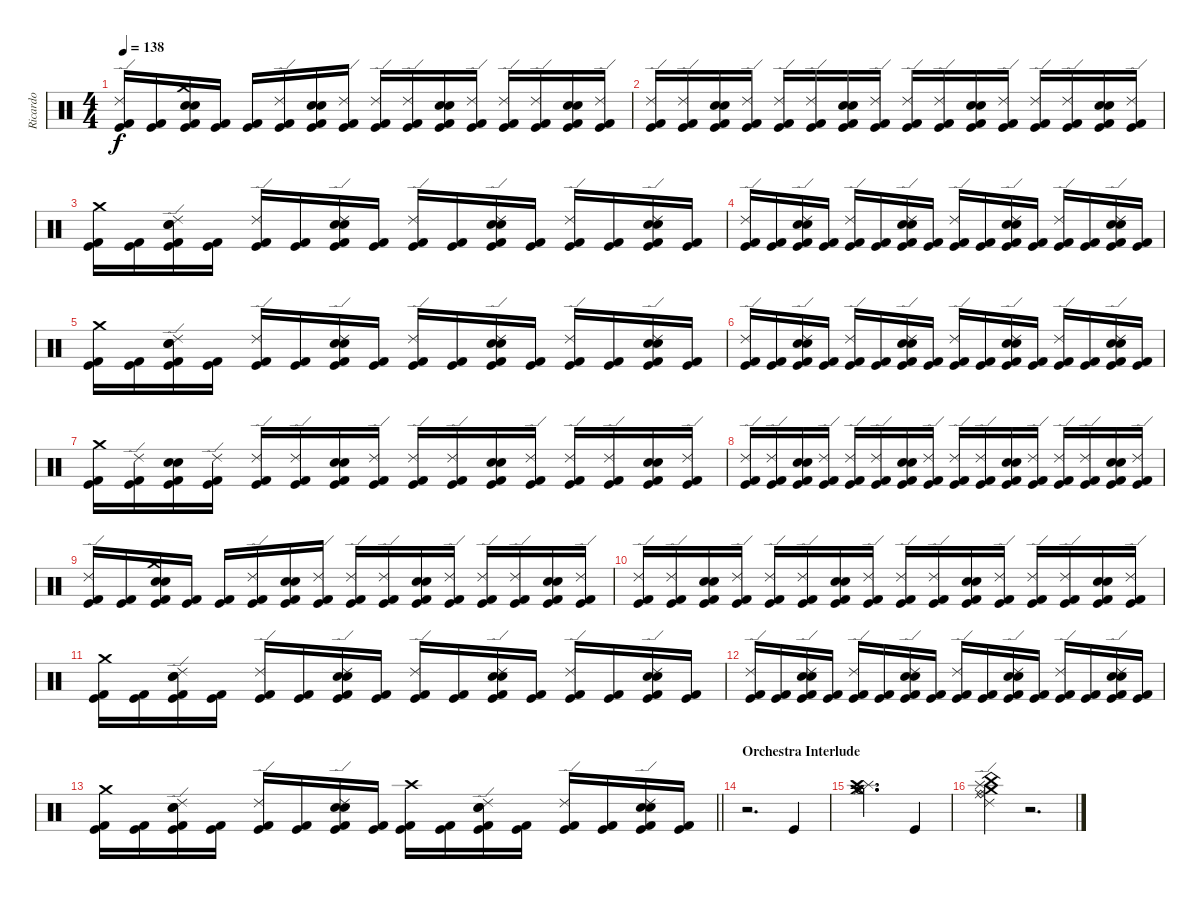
\track ("Ricardo" "Ricardo") {instrument percussion}
\staff {score}
\articulation defaults
\ts (4 4)
\tempo 138
\clef neutral
\ks c
("Ride (edge) 2" "Kick (hit) 2" "Kick (hit)").16{dy f} ("Kick (hit) 2" "Kick (hit)").16 ("Crash medium (hit)" "Electric Snare (hit)" "Snare (hit) 2" "Kick (hit) 2" "Kick (hit)").16 ("Kick (hit) 2" "Kick (hit)").16 ("Kick (hit) 2" "Kick (hit)").16 ("Ride (edge) 2" "Kick (hit) 2" "Kick (hit)").16 ("Electric Snare (hit)" "Snare (hit) 2" "Kick (hit) 2" "Kick (hit)").16 ("Ride (edge) 2" "Kick (hit) 2" "Kick (hit)").16 ("Ride (edge) 2" "Kick (hit) 2" "Kick (hit)").16 ("Ride (edge) 2" "Kick (hit) 2" "Kick (hit)").16 ("Electric Snare (hit)" "Snare (hit) 2" "Kick (hit) 2" "Kick (hit)").16 ("Ride (edge) 2" "Kick (hit) 2" "Kick (hit)").16 ("Ride (edge) 2" "Kick (hit) 2" "Kick (hit)").16 ("Ride (edge) 2" "Kick (hit) 2" "Kick (hit)").16 ("Electric Snare (hit)" "Snare (hit) 2" "Kick (hit) 2" "Kick (hit)").16 ("Ride (edge) 2" "Kick (hit) 2" "Kick (hit)").16 |
("Ride (edge) 2" "Kick (hit) 2" "Kick (hit)").16 ("Ride (edge) 2" "Kick (hit) 2" "Kick (hit)").16 ("Electric Snare (hit)" "Snare (hit) 2" "Kick (hit) 2" "Kick (hit)").16 ("Ride (edge) 2" "Kick (hit) 2" "Kick (hit)").16 ("Ride (edge) 2" "Kick (hit) 2" "Kick (hit)").16 ("Ride (edge) 2" "Kick (hit) 2" "Kick (hit)").16 ("Electric Snare (hit)" "Snare (hit) 2" "Kick (hit) 2" "Kick (hit)").16 ("Ride (edge) 2" "Kick (hit) 2" "Kick (hit)").16 ("Ride (edge) 2" "Kick (hit) 2" "Kick (hit)").16 ("Ride (edge) 2" "Kick (hit) 2" "Kick (hit)").16 ("Electric Snare (hit)" "Snare (hit) 2" "Kick (hit) 2" "Kick (hit)").16 ("Ride (edge) 2" "Kick (hit) 2" "Kick (hit)").16 ("Ride (edge) 2" "Kick (hit) 2" "Kick (hit)").16 ("Ride (edge) 2" "Kick (hit) 2" "Kick (hit)").16 ("Electric Snare (hit)" "Snare (hit) 2" "Kick (hit) 2" "Kick (hit)").16 ("Ride (edge) 2" "Kick (hit) 2" "Kick (hit)").16 |
("Crash medium (hit)" "Kick (hit) 2" "Kick (hit)").16 ("Kick (hit) 2" "Kick (hit)").16 ("Ride (edge) 2" "Electric Snare (hit)" "Snare (hit) 2" "Kick (hit) 2" "Kick (hit)").16 ("Kick (hit) 2" "Kick (hit)").16 ("Ride (edge) 2" "Kick (hit) 2" "Kick (hit)").16 ("Kick (hit) 2" "Kick (hit)").16 ("Ride (edge) 2" "Electric Snare (hit)" "Snare (hit) 2" "Kick (hit) 2" "Kick (hit)").16 ("Kick (hit) 2" "Kick (hit)").16 ("Ride (edge) 2" "Kick (hit) 2" "Kick (hit)").16 ("Kick (hit) 2" "Kick (hit)").16 ("Ride (edge) 2" "Electric Snare (hit)" "Snare (hit) 2" "Kick (hit) 2" "Kick (hit)").16 ("Kick (hit) 2" "Kick (hit)").16 ("Ride (edge) 2" "Kick (hit) 2" "Kick (hit)").16 ("Kick (hit) 2" "Kick (hit)").16 ("Ride (edge) 2" "Electric Snare (hit)" "Snare (hit) 2" "Kick (hit) 2" "Kick (hit)").16 ("Kick (hit) 2" "Kick (hit)").16 |
("Ride (edge) 2" "Kick (hit) 2" "Kick (hit)").16 ("Kick (hit) 2" "Kick (hit)").16 ("Ride (edge) 2" "Electric Snare (hit)" "Snare (hit) 2" "Kick (hit) 2" "Kick (hit)").16 ("Kick (hit) 2" "Kick (hit)").16 ("Ride (edge) 2" "Kick (hit) 2" "Kick (hit)").16 ("Kick (hit) 2" "Kick (hit)").16 ("Ride (edge) 2" "Electric Snare (hit)" "Snare (hit) 2" "Kick (hit) 2" "Kick (hit)").16 ("Kick (hit) 2" "Kick (hit)").16 ("Ride (edge) 2" "Kick (hit) 2" "Kick (hit)").16 ("Kick (hit) 2" "Kick (hit)").16 ("Ride (edge) 2" "Electric Snare (hit)" "Snare (hit) 2" "Kick (hit) 2" "Kick (hit)").16 ("Kick (hit) 2" "Kick (hit)").16 ("Ride (edge) 2" "Kick (hit) 2" "Kick (hit)").16 ("Kick (hit) 2" "Kick (hit)").16 ("Ride (edge) 2" "Electric Snare (hit)" "Snare (hit) 2" "Kick (hit) 2" "Kick (hit)").16 ("Kick (hit) 2" "Kick (hit)").16 |
("Crash medium (hit)" "Kick (hit) 2" "Kick (hit)").16 ("Kick (hit) 2" "Kick (hit)").16 ("Ride (edge) 2" "Electric Snare (hit)" "Snare (hit) 2" "Kick (hit) 2" "Kick (hit)").16 ("Kick (hit) 2" "Kick (hit)").16 ("Ride (edge) 2" "Kick (hit) 2" "Kick (hit)").16 ("Kick (hit) 2" "Kick (hit)").16 ("Ride (edge) 2" "Electric Snare (hit)" "Snare (hit) 2" "Kick (hit) 2" "Kick (hit)").16 ("Kick (hit) 2" "Kick (hit)").16 ("Ride (edge) 2" "Kick (hit) 2" "Kick (hit)").16 ("Kick (hit) 2" "Kick (hit)").16 ("Ride (edge) 2" "Electric Snare (hit)" "Snare (hit) 2" "Kick (hit) 2" "Kick (hit)").16 ("Kick (hit) 2" "Kick (hit)").16 ("Ride (edge) 2" "Kick (hit) 2" "Kick (hit)").16 ("Kick (hit) 2" "Kick (hit)").16 ("Ride (edge) 2" "Electric Snare (hit)" "Snare (hit) 2" "Kick (hit) 2" "Kick (hit)").16 ("Kick (hit) 2" "Kick (hit)").16 |
("Ride (edge) 2" "Kick (hit) 2" "Kick (hit)").16 ("Kick (hit) 2" "Kick (hit)").16 ("Ride (edge) 2" "Electric Snare (hit)" "Snare (hit) 2" "Kick (hit) 2" "Kick (hit)").16 ("Kick (hit) 2" "Kick (hit)").16 ("Ride (edge) 2" "Kick (hit) 2" "Kick (hit)").16 ("Kick (hit) 2" "Kick (hit)").16 ("Ride (edge) 2" "Electric Snare (hit)" "Snare (hit) 2" "Kick (hit) 2" "Kick (hit)").16 ("Kick (hit) 2" "Kick (hit)").16 ("Ride (edge) 2" "Kick (hit) 2" "Kick (hit)").16 ("Kick (hit) 2" "Kick (hit)").16 ("Ride (edge) 2" "Electric Snare (hit)" "Snare (hit) 2" "Kick (hit) 2" "Kick (hit)").16 ("Kick (hit) 2" "Kick (hit)").16 ("Ride (edge) 2" "Kick (hit) 2" "Kick (hit)").16 ("Kick (hit) 2" "Kick (hit)").16 ("Ride (edge) 2" "Electric Snare (hit)" "Snare (hit) 2" "Kick (hit) 2" "Kick (hit)").16 ("Kick (hit) 2" "Kick (hit)").16 |
("Crash medium (hit)" "Kick (hit) 2" "Kick (hit)").16 ("Ride (edge) 2" "Kick (hit) 2" "Kick (hit)").16 ("Electric Snare (hit)" "Snare (hit) 2" "Kick (hit) 2" "Kick (hit)").16 ("Ride (edge) 2" "Kick (hit) 2" "Kick (hit)").16 ("Ride (edge) 2" "Kick (hit) 2" "Kick (hit)").16 ("Ride (edge) 2" "Kick (hit) 2" "Kick (hit)").16 ("Electric Snare (hit)" "Snare (hit) 2" "Kick (hit) 2" "Kick (hit)").16 ("Ride (edge) 2" "Kick (hit) 2" "Kick (hit)").16 ("Ride (edge) 2" "Kick (hit) 2" "Kick (hit)").16 ("Ride (edge) 2" "Kick (hit) 2" "Kick (hit)").16 ("Electric Snare (hit)" "Snare (hit) 2" "Kick (hit) 2" "Kick (hit)").16 ("Ride (edge) 2" "Kick (hit) 2" "Kick (hit)").16 ("Ride (edge) 2" "Kick (hit) 2" "Kick (hit)").16 ("Ride (edge) 2" "Kick (hit) 2" "Kick (hit)").16 ("Electric Snare (hit)" "Snare (hit) 2" "Kick (hit) 2" "Kick (hit)").16 ("Ride (edge) 2" "Kick (hit) 2" "Kick (hit)").16 |
("Ride (edge) 2" "Kick (hit) 2" "Kick (hit)").16 ("Ride (edge) 2" "Kick (hit) 2" "Kick (hit)").16 ("Electric Snare (hit)" "Snare (hit) 2" "Kick (hit) 2" "Kick (hit)").16 ("Ride (edge) 2" "Kick (hit) 2" "Kick (hit)").16 ("Ride (edge) 2" "Kick (hit) 2" "Kick (hit)").16 ("Ride (edge) 2" "Kick (hit) 2" "Kick (hit)").16 ("Electric Snare (hit)" "Snare (hit) 2" "Kick (hit) 2" "Kick (hit)").16 ("Ride (edge) 2" "Kick (hit) 2" "Kick (hit)").16 ("Ride (edge) 2" "Kick (hit) 2" "Kick (hit)").16 ("Ride (edge) 2" "Kick (hit) 2" "Kick (hit)").16 ("Electric Snare (hit)" "Snare (hit) 2" "Kick (hit) 2" "Kick (hit)").16 ("Ride (edge) 2" "Kick (hit) 2" "Kick (hit)").16 ("Ride (edge) 2" "Kick (hit) 2" "Kick (hit)").16 ("Ride (edge) 2" "Kick (hit) 2" "Kick (hit)").16 ("Electric Snare (hit)" "Snare (hit) 2" "Kick (hit) 2" "Kick (hit)").16 ("Ride (edge) 2" "Kick (hit) 2" "Kick (hit)").16 |
("Ride (edge) 2" "Kick (hit) 2" "Kick (hit)").16 ("Kick (hit) 2" "Kick (hit)").16 ("Crash medium (hit)" "Electric Snare (hit)" "Snare (hit) 2" "Kick (hit) 2" "Kick (hit)").16 ("Kick (hit) 2" "Kick (hit)").16 ("Kick (hit) 2" "Kick (hit)").16 ("Ride (edge) 2" "Kick (hit) 2" "Kick (hit)").16 ("Electric Snare (hit)" "Snare (hit) 2" "Kick (hit) 2" "Kick (hit)").16 ("Ride (edge) 2" "Kick (hit) 2" "Kick (hit)").16 ("Ride (edge) 2" "Kick (hit) 2" "Kick (hit)").16 ("Ride (edge) 2" "Kick (hit) 2" "Kick (hit)").16 ("Electric Snare (hit)" "Snare (hit) 2" "Kick (hit) 2" "Kick (hit)").16 ("Ride (edge) 2" "Kick (hit) 2" "Kick (hit)").16 ("Ride (edge) 2" "Kick (hit) 2" "Kick (hit)").16 ("Ride (edge) 2" "Kick (hit) 2" "Kick (hit)").16 ("Electric Snare (hit)" "Snare (hit) 2" "Kick (hit) 2" "Kick (hit)").16 ("Ride (edge) 2" "Kick (hit) 2" "Kick (hit)").16 |
("Ride (edge) 2" "Kick (hit) 2" "Kick (hit)").16 ("Ride (edge) 2" "Kick (hit) 2" "Kick (hit)").16 ("Electric Snare (hit)" "Snare (hit) 2" "Kick (hit) 2" "Kick (hit)").16 ("Ride (edge) 2" "Kick (hit) 2" "Kick (hit)").16 ("Ride (edge) 2" "Kick (hit) 2" "Kick (hit)").16 ("Ride (edge) 2" "Kick (hit) 2" "Kick (hit)").16 ("Electric Snare (hit)" "Snare (hit) 2" "Kick (hit) 2" "Kick (hit)").16 ("Ride (edge) 2" "Kick (hit) 2" "Kick (hit)").16 ("Ride (edge) 2" "Kick (hit) 2" "Kick (hit)").16 ("Ride (edge) 2" "Kick (hit) 2" "Kick (hit)").16 ("Electric Snare (hit)" "Snare (hit) 2" "Kick (hit) 2" "Kick (hit)").16 ("Ride (edge) 2" "Kick (hit) 2" "Kick (hit)").16 ("Ride (edge) 2" "Kick (hit) 2" "Kick (hit)").16 ("Ride (edge) 2" "Kick (hit) 2" "Kick (hit)").16 ("Electric Snare (hit)" "Snare (hit) 2" "Kick (hit) 2" "Kick (hit)").16 ("Ride (edge) 2" "Kick (hit) 2" "Kick (hit)").16 |
("Crash medium (hit)" "Kick (hit) 2" "Kick (hit)").16 ("Kick (hit) 2" "Kick (hit)").16 ("Ride (edge) 2" "Electric Snare (hit)" "Snare (hit) 2" "Kick (hit) 2" "Kick (hit)").16 ("Kick (hit) 2" "Kick (hit)").16 ("Ride (edge) 2" "Kick (hit) 2" "Kick (hit)").16 ("Kick (hit) 2" "Kick (hit)").16 ("Ride (edge) 2" "Electric Snare (hit)" "Snare (hit) 2" "Kick (hit) 2" "Kick (hit)").16 ("Kick (hit) 2" "Kick (hit)").16 ("Ride (edge) 2" "Kick (hit) 2" "Kick (hit)").16 ("Kick (hit) 2" "Kick (hit)").16 ("Ride (edge) 2" "Electric Snare (hit)" "Snare (hit) 2" "Kick (hit) 2" "Kick (hit)").16 ("Kick (hit) 2" "Kick (hit)").16 ("Ride (edge) 2" "Kick (hit) 2" "Kick (hit)").16 ("Kick (hit) 2" "Kick (hit)").16 ("Ride (edge) 2" "Electric Snare (hit)" "Snare (hit) 2" "Kick (hit) 2" "Kick (hit)").16 ("Kick (hit) 2" "Kick (hit)").16 |
("Ride (edge) 2" "Kick (hit) 2" "Kick (hit)").16 ("Kick (hit) 2" "Kick (hit)").16 ("Ride (edge) 2" "Electric Snare (hit)" "Snare (hit) 2" "Kick (hit) 2" "Kick (hit)").16 ("Kick (hit) 2" "Kick (hit)").16 ("Ride (edge) 2" "Kick (hit) 2" "Kick (hit)").16 ("Kick (hit) 2" "Kick (hit)").16 ("Ride (edge) 2" "Electric Snare (hit)" "Snare (hit) 2" "Kick (hit) 2" "Kick (hit)").16 ("Kick (hit) 2" "Kick (hit)").16 ("Ride (edge) 2" "Kick (hit) 2" "Kick (hit)").16 ("Kick (hit) 2" "Kick (hit)").16 ("Ride (edge) 2" "Electric Snare (hit)" "Snare (hit) 2" "Kick (hit) 2" "Kick (hit)").16 ("Kick (hit) 2" "Kick (hit)").16 ("Ride (edge) 2" "Kick (hit) 2" "Kick (hit)").16 ("Kick (hit) 2" "Kick (hit)").16 ("Ride (edge) 2" "Electric Snare (hit)" "Snare (hit) 2" "Kick (hit) 2" "Kick (hit)").16 ("Kick (hit) 2" "Kick (hit)").16 |
\barLineRight lightlight
("Crash medium (hit)" "Kick (hit) 2" "Kick (hit)").16 ("Kick (hit) 2" "Kick (hit)").16 ("Ride (edge) 2" "Electric Snare (hit)" "Snare (hit) 2" "Kick (hit) 2" "Kick (hit)").16 ("Kick (hit) 2" "Kick (hit)").16 ("Ride (edge) 2" "Kick (hit) 2" "Kick (hit)").16 ("Kick (hit) 2" "Kick (hit)").16 ("Ride (edge) 2" "Electric Snare (hit)" "Snare (hit) 2" "Kick (hit) 2" "Kick (hit)").16 ("Kick (hit) 2" "Kick (hit)").16 ("Crash high (hit)" "Kick (hit) 2" "Kick (hit)").16 ("Kick (hit) 2" "Kick (hit)").16 ("Ride (edge) 2" "Electric Snare (hit)" "Snare (hit) 2" "Kick (hit) 2" "Kick (hit)").16 ("Kick (hit) 2" "Kick (hit)").16 ("Ride (edge) 2" "Kick (hit) 2" "Kick (hit)").16 ("Kick (hit) 2" "Kick (hit)").16 ("Ride (edge) 2" "Electric Snare (hit)" "Snare (hit) 2" "Kick (hit) 2" "Kick (hit)").16 ("Kick (hit) 2" "Kick (hit)").16 |
\section ("" "Orchestra Interlude")
r.2{d} "Kick (hit)".4 |
("Hi-Hat (open)" "Splash (hit)" "Crash medium (hit)" "Crash high (hit)" "Hi-Hat (closed)" "Hi-Hat (open)").2{d} "Kick (hit)".4 |
("Ride (middle)" "Ride (bell)" "Ride (edge) 2" "Splash (hit)" "Crash medium (hit)" "China (hit)").4 r.2{d}
